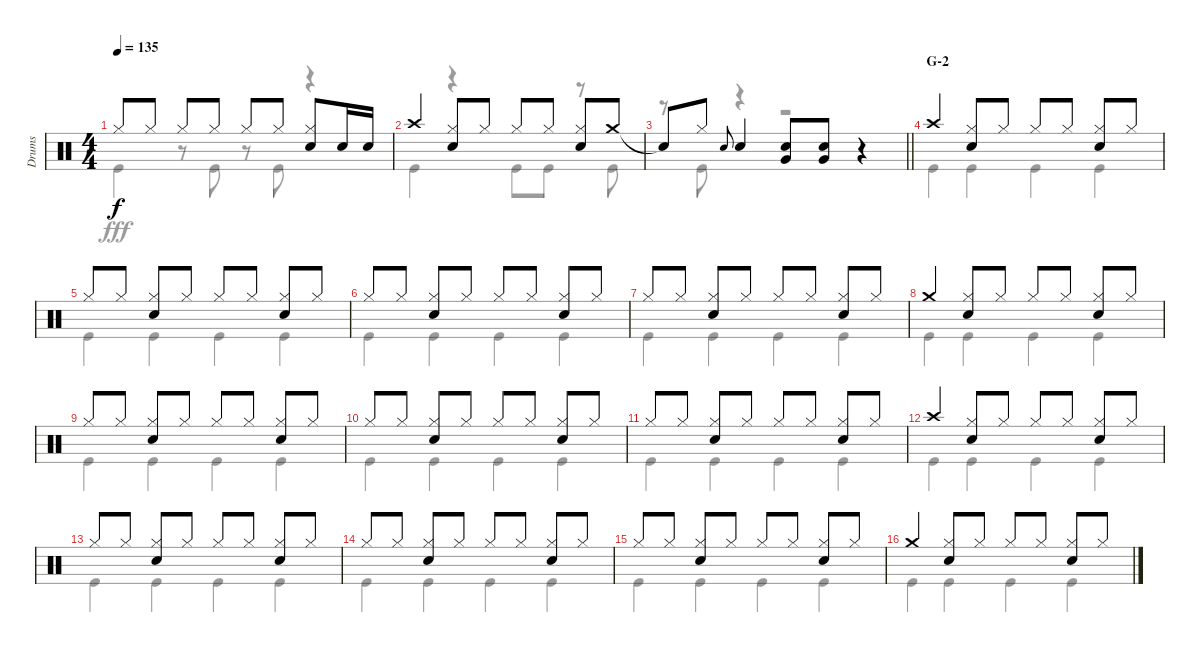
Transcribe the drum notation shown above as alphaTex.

\track ("Drums" "Drums") {instrument percussion}
\staff {score}
\articulation defaults
\voice
\ts (4 4)
\tempo 135
\clef neutral
\ks c "Hi-Hat (closed)".8{dy f} "Hi-Hat (closed)".8 "Hi-Hat (closed)".8 "Hi-Hat (closed)".8 "Hi-Hat (closed)".8 "Hi-Hat (closed)".8
("Hi-Hat (closed)" "Snare (hit) 2").8 "Snare (hit) 2".16 "Snare (hit) 2".16 |
"Crash high (hit)".4 ("Hi-Hat (closed)" "Snare (hit) 2").8 "Hi-Hat (closed)".8 "Hi-Hat (closed)".8 "Hi-Hat (closed)".8 ("Hi-Hat (closed)" "Snare (hit) 2").8 "Crash medium (hit)".8 |
\barLineRight lightlight "Snare (hit)"{t}.8 "Hi-Hat (closed)".8 "Snare (hit) 2".8{gr onbeat} "Snare (hit) 2".4
("Snare (hit) 2" "Very Low Tom (hit)").8 ("Snare (hit) 2" "Very Low Tom (hit)").8 r.4 |
\section ("" "G-2")
"Crash high (hit)".4 ("Hi-Hat (closed)" "Snare (hit) 2").8 "Hi-Hat (closed)".8 "Hi-Hat (closed)".8 "Hi-Hat (closed)".8 ("Hi-Hat (closed)" "Snare (hit) 2").8 "Hi-Hat (closed)".8 |
"Hi-Hat (closed)".8 "Hi-Hat (closed)".8 ("Hi-Hat (closed)" "Snare (hit) 2").8 "Hi-Hat (closed)".8 "Hi-Hat (closed)".8 "Hi-Hat (closed)".8 ("Hi-Hat (closed)" "Snare (hit) 2").8 "Hi-Hat (closed)".8 |
"Hi-Hat (closed)".8 "Hi-Hat (closed)".8 ("Hi-Hat (closed)" "Snare (hit) 2").8 "Hi-Hat (closed)".8 "Hi-Hat (closed)".8 "Hi-Hat (closed)".8 ("Hi-Hat (closed)" "Snare (hit) 2").8 "Hi-Hat (closed)".8 |
"Hi-Hat (closed)".8 "Hi-Hat (closed)".8 ("Hi-Hat (closed)" "Snare (hit) 2").8 "Hi-Hat (closed)".8 "Hi-Hat (closed)".8 "Hi-Hat (closed)".8 ("Hi-Hat (closed)" "Snare (hit) 2").8 "Hi-Hat (closed)".8 |
"Crash medium (hit)".4 ("Hi-Hat (closed)" "Snare (hit) 2").8 "Hi-Hat (closed)".8 "Hi-Hat (closed)".8 "Hi-Hat (closed)".8 ("Hi-Hat (closed)" "Snare (hit) 2").8 "Hi-Hat (closed)".8 |
"Hi-Hat (closed)".8 "Hi-Hat (closed)".8 ("Hi-Hat (closed)" "Snare (hit) 2").8 "Hi-Hat (closed)".8 "Hi-Hat (closed)".8 "Hi-Hat (closed)".8 ("Hi-Hat (closed)" "Snare (hit) 2").8 "Hi-Hat (closed)".8 |
"Hi-Hat (closed)".8 "Hi-Hat (closed)".8 ("Hi-Hat (closed)" "Snare (hit) 2").8 "Hi-Hat (closed)".8 "Hi-Hat (closed)".8 "Hi-Hat (closed)".8 ("Hi-Hat (closed)" "Snare (hit) 2").8 "Hi-Hat (closed)".8 |
"Hi-Hat (closed)".8 "Hi-Hat (closed)".8 ("Hi-Hat (closed)" "Snare (hit) 2").8 "Hi-Hat (closed)".8 "Hi-Hat (closed)".8 "Hi-Hat (closed)".8 ("Hi-Hat (closed)" "Snare (hit) 2").8 "Hi-Hat (closed)".8 |
"Crash high (hit)".4 ("Hi-Hat (closed)" "Snare (hit) 2").8 "Hi-Hat (closed)".8 "Hi-Hat (closed)".8 "Hi-Hat (closed)".8 ("Hi-Hat (closed)" "Snare (hit) 2").8 "Hi-Hat (closed)".8 |
"Hi-Hat (closed)".8 "Hi-Hat (closed)".8 ("Hi-Hat (closed)" "Snare (hit) 2").8 "Hi-Hat (closed)".8 "Hi-Hat (closed)".8 "Hi-Hat (closed)".8 ("Hi-Hat (closed)" "Snare (hit) 2").8 "Hi-Hat (closed)".8 |
"Hi-Hat (closed)".8 "Hi-Hat (closed)".8 ("Hi-Hat (closed)" "Snare (hit) 2").8 "Hi-Hat (closed)".8 "Hi-Hat (closed)".8 "Hi-Hat (closed)".8 ("Hi-Hat (closed)" "Snare (hit) 2").8 "Hi-Hat (closed)".8 |
"Hi-Hat (closed)".8 "Hi-Hat (closed)".8 ("Hi-Hat (closed)" "Snare (hit) 2").8 "Hi-Hat (closed)".8 "Hi-Hat (closed)".8 "Hi-Hat (closed)".8 ("Hi-Hat (closed)" "Snare (hit) 2").8 "Hi-Hat (closed)".8 |
"Crash medium (hit)".4 ("Hi-Hat (closed)" "Snare (hit) 2").8 "Hi-Hat (closed)".8 "Hi-Hat (closed)".8 "Hi-Hat (closed)".8 ("Hi-Hat (closed)" "Snare (hit) 2").8 "Hi-Hat (closed)".8
\voice
\clef neutral
\ottava regular
\simile none
\ks c "Kick (hit)".4{dy fff}
r.8 "Kick (hit)".8 r.8 "Kick (hit)".8 r.4 |
"Kick (hit)".4 r.4 "Kick (hit)".8 "Kick (hit)".8 r.8 "Kick (hit)".8 |
\barLineRight lightlight
r.8 "Kick (hit)".8 r.4 r.2 |
"Kick (hit)".4 "Kick (hit)".4 "Kick (hit)".4 "Kick (hit)".4 |
"Kick (hit)".4 "Kick (hit)".4 "Kick (hit)".4 "Kick (hit)".4 |
"Kick (hit)".4 "Kick (hit)".4 "Kick (hit)".4 "Kick (hit)".4 |
"Kick (hit)".4 "Kick (hit)".4 "Kick (hit)".4 "Kick (hit)".4 |
"Kick (hit)".4 "Kick (hit)".4 "Kick (hit)".4 "Kick (hit)".4 |
"Kick (hit)".4 "Kick (hit)".4 "Kick (hit)".4 "Kick (hit)".4 |
"Kick (hit)".4 "Kick (hit)".4 "Kick (hit)".4 "Kick (hit)".4 |
"Kick (hit)".4 "Kick (hit)".4 "Kick (hit)".4 "Kick (hit)".4 |
"Kick (hit)".4 "Kick (hit)".4 "Kick (hit)".4 "Kick (hit)".4 |
"Kick (hit)".4 "Kick (hit)".4 "Kick (hit)".4 "Kick (hit)".4 |
"Kick (hit)".4 "Kick (hit)".4 "Kick (hit)".4 "Kick (hit)".4 |
"Kick (hit)".4 "Kick (hit)".4 "Kick (hit)".4 "Kick (hit)".4 |
"Kick (hit)".4 "Kick (hit)".4 "Kick (hit)".4 "Kick (hit)".4
